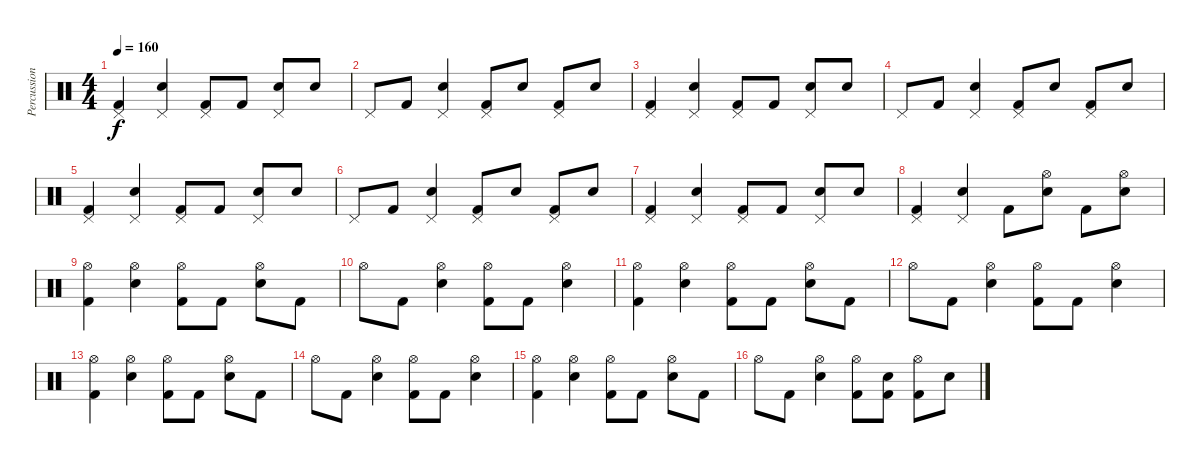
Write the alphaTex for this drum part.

\track ("Percussion" "Percussion") {instrument percussion}
\staff {score}
\articulation defaults
\ts (4 4)
\tempo 160
\clef neutral
\ks c
("Pedal Hi-Hat (hit)" "Kick (hit) 2").4{dy f} ("Pedal Hi-Hat (hit)" "Snare (hit) 2").4 ("Pedal Hi-Hat (hit)" "Kick (hit) 2").8 "Kick (hit) 2".8 ("Pedal Hi-Hat (hit)" "Snare (hit) 2").8 "Snare (hit) 2".8 |
"Pedal Hi-Hat (hit)".8 "Kick (hit) 2".8 ("Pedal Hi-Hat (hit)" "Snare (hit) 2").4 ("Pedal Hi-Hat (hit)" "Kick (hit) 2").8 "Snare (hit) 2".8 ("Pedal Hi-Hat (hit)" "Kick (hit) 2").8 "Snare (hit) 2".8 |
("Pedal Hi-Hat (hit)" "Kick (hit) 2").4 ("Pedal Hi-Hat (hit)" "Snare (hit) 2").4 ("Pedal Hi-Hat (hit)" "Kick (hit) 2").8 "Kick (hit) 2".8 ("Pedal Hi-Hat (hit)" "Snare (hit) 2").8 "Snare (hit) 2".8 |
"Pedal Hi-Hat (hit)".8 "Kick (hit) 2".8 ("Pedal Hi-Hat (hit)" "Snare (hit) 2").4 ("Pedal Hi-Hat (hit)" "Kick (hit) 2").8 "Snare (hit) 2".8 ("Pedal Hi-Hat (hit)" "Kick (hit) 2").8 "Snare (hit) 2".8 |
("Pedal Hi-Hat (hit)" "Kick (hit) 2").4 ("Pedal Hi-Hat (hit)" "Snare (hit) 2").4 ("Pedal Hi-Hat (hit)" "Kick (hit) 2").8 "Kick (hit) 2".8 ("Pedal Hi-Hat (hit)" "Snare (hit) 2").8 "Snare (hit) 2".8 |
"Pedal Hi-Hat (hit)".8 "Kick (hit) 2".8 ("Pedal Hi-Hat (hit)" "Snare (hit) 2").4 ("Pedal Hi-Hat (hit)" "Kick (hit) 2").8 "Snare (hit) 2".8 ("Pedal Hi-Hat (hit)" "Kick (hit) 2").8 "Snare (hit) 2".8 |
("Pedal Hi-Hat (hit)" "Kick (hit) 2").4 ("Pedal Hi-Hat (hit)" "Snare (hit) 2").4 ("Pedal Hi-Hat (hit)" "Kick (hit) 2").8 "Kick (hit) 2".8 ("Pedal Hi-Hat (hit)" "Snare (hit) 2").8 "Snare (hit) 2".8 |
("Pedal Hi-Hat (hit)" "Kick (hit) 2").4 ("Pedal Hi-Hat (hit)" "Snare (hit) 2").4 "Kick (hit) 2".8 ("Hi-Hat (open)" "Snare (hit) 2").8 "Kick (hit) 2".8 ("Hi-Hat (open)" "Snare (hit) 2").8 |
("Hi-Hat (open)" "Kick (hit) 2").4 ("Hi-Hat (open)" "Snare (hit) 2").4 ("Hi-Hat (open)" "Kick (hit) 2").8 "Kick (hit) 2".8 ("Hi-Hat (open)" "Snare (hit) 2").8 "Kick (hit) 2".8 |
"Hi-Hat (open)".8 "Kick (hit) 2".8 ("Hi-Hat (open)" "Snare (hit) 2").4 ("Hi-Hat (open)" "Kick (hit) 2").8 "Kick (hit) 2".8 ("Hi-Hat (open)" "Snare (hit) 2").4 |
("Hi-Hat (open)" "Kick (hit) 2").4 ("Hi-Hat (open)" "Snare (hit) 2").4 ("Hi-Hat (open)" "Kick (hit) 2").8 "Kick (hit) 2".8 ("Hi-Hat (open)" "Snare (hit) 2").8 "Kick (hit) 2".8 |
"Hi-Hat (open)".8 "Kick (hit) 2".8 ("Hi-Hat (open)" "Snare (hit) 2").4 ("Hi-Hat (open)" "Kick (hit) 2").8 "Kick (hit) 2".8 ("Hi-Hat (open)" "Snare (hit) 2").4 |
("Hi-Hat (open)" "Kick (hit) 2").4 ("Hi-Hat (open)" "Snare (hit) 2").4 ("Hi-Hat (open)" "Kick (hit) 2").8 "Kick (hit) 2".8 ("Hi-Hat (open)" "Snare (hit) 2").8 "Kick (hit) 2".8 |
"Hi-Hat (open)".8 "Kick (hit) 2".8 ("Hi-Hat (open)" "Snare (hit) 2").4 ("Hi-Hat (open)" "Kick (hit) 2").8 "Kick (hit) 2".8 ("Hi-Hat (open)" "Snare (hit) 2").4 |
("Hi-Hat (open)" "Kick (hit) 2").4 ("Hi-Hat (open)" "Snare (hit) 2").4 ("Hi-Hat (open)" "Kick (hit) 2").8 "Kick (hit) 2".8 ("Hi-Hat (open)" "Snare (hit) 2").8 "Kick (hit) 2".8 |
"Hi-Hat (open)".8 "Kick (hit) 2".8 ("Hi-Hat (open)" "Snare (hit) 2").4 ("Hi-Hat (open)" "Kick (hit) 2").8 ("Snare (hit) 2" "Kick (hit) 2").8 ("Hi-Hat (open)" "Kick (hit) 2").8 "Snare (hit) 2".8
